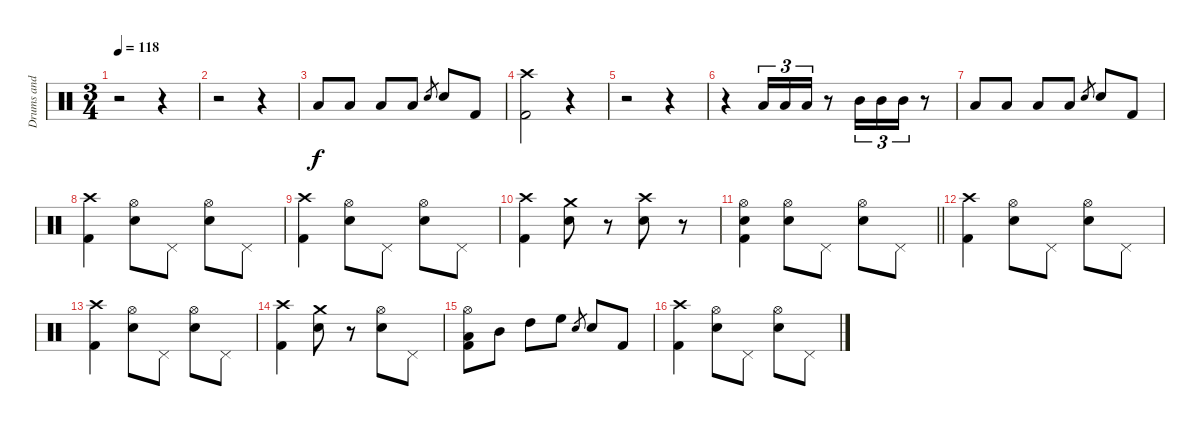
\track ("Drums and percussion" "Drums and ") {instrument percussion}
\staff {score}
\articulation defaults
\ts (3 4)
\tempo 118
\clef neutral
\ks c
r.2{dy f} r.4 |
r.2 r.4 |
"Low Tom (hit)".8 "Low Tom (hit)".8 "Low Tom (hit)".8 "Low Tom (hit)".8 "Snare (hit) 2".8{gr} "Snare (hit) 2".8 "Kick (hit) 2".8 |
("Crash high (hit)" "Kick (hit) 2").2 r.4 |
r.2 r.4 |
r.4 "Low Tom (hit)".16{tu (3 2)} "Low Tom (hit)".16{tu (3 2)} "Low Tom (hit)".16{tu (3 2)} r.8 "Mid Tom (hit)".16{tu (3 2)} "Mid Tom (hit)".16{tu (3 2)} "Mid Tom (hit)".16{tu (3 2)} r.8 |
"Low Tom (hit)".8 "Low Tom (hit)".8 "Low Tom (hit)".8 "Low Tom (hit)".8 "Snare (hit) 2".8{gr} "Snare (hit) 2".8 "Kick (hit) 2".8 |
("Crash high (hit)" "Kick (hit) 2").4 ("Hi-Hat (open)" "Snare (hit) 2").8 "Pedal Hi-Hat (hit)".8 ("Hi-Hat (open)" "Snare (hit) 2").8 "Pedal Hi-Hat (hit)".8 |
("Crash high (hit)" "Kick (hit) 2").4 ("Hi-Hat (open)" "Snare (hit) 2").8 "Pedal Hi-Hat (hit)".8 ("Hi-Hat (open)" "Snare (hit) 2").8 "Pedal Hi-Hat (hit)".8 |
("Crash high (hit)" "Kick (hit) 2").4 ("Crash medium (hit)" "Snare (hit) 2").8 r.8 ("Crash high (hit)" "Snare (hit) 2").8 r.8 |
\barLineRight lightlight
("Hi-Hat (open)" "Snare (hit) 2" "Kick (hit) 2").4 ("Hi-Hat (open)" "Snare (hit) 2").8 "Pedal Hi-Hat (hit)".8 ("Hi-Hat (open)" "Snare (hit) 2").8 "Pedal Hi-Hat (hit)".8 |
("Crash high (hit)" "Kick (hit) 2").4 ("Hi-Hat (open)" "Snare (hit) 2").8 "Pedal Hi-Hat (hit)".8 ("Hi-Hat (open)" "Snare (hit) 2").8 "Pedal Hi-Hat (hit)".8 |
("Crash high (hit)" "Kick (hit) 2").4 ("Hi-Hat (open)" "Snare (hit) 2").8 "Pedal Hi-Hat (hit)".8 ("Hi-Hat (open)" "Snare (hit) 2").8 "Pedal Hi-Hat (hit)".8 |
("Crash high (hit)" "Kick (hit) 2").4 ("Crash medium (hit)" "Snare (hit) 2").8 r.8 ("Hi-Hat (open)" "Snare (hit) 2").8 "Pedal Hi-Hat (hit)".8 |
("Hi-Hat (open)" "Low Tom (hit)" "Kick (hit) 2").8 "Mid Tom (hit)".8 "High Tom (hit)".8 "High Floor Tom (hit)".8 "Snare (hit) 2".8{gr} "Snare (hit) 2".8 "Kick (hit) 2".8 |
("Crash high (hit)" "Kick (hit) 2").4 ("Hi-Hat (open)" "Snare (hit) 2").8 "Pedal Hi-Hat (hit)".8 ("Hi-Hat (open)" "Snare (hit) 2").8 "Pedal Hi-Hat (hit)".8
